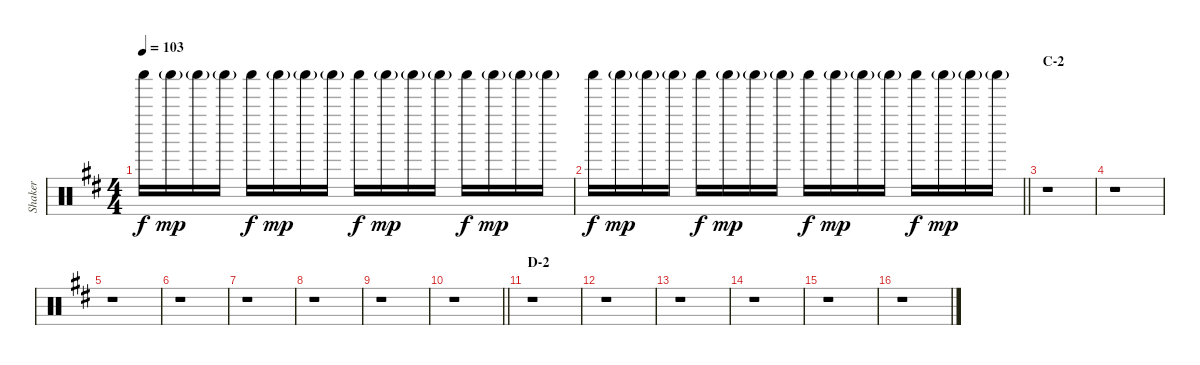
\track ("Shaker" "Shaker") {instrument percussion}
\staff {score}
\articulation defaults
\ts (4 4)
\tempo 103
\clef neutral
\ks d "Shaker (hit)".16{dy f} "Shaker (hit)"{g}.16{dy mp} "Shaker (hit)"{g}.16 "Shaker (hit)"{g}.16 "Shaker (hit)".16{dy f} "Shaker (hit)"{g}.16{dy mp} "Shaker (hit)"{g}.16 "Shaker (hit)"{g}.16 "Shaker (hit)".16{dy f} "Shaker (hit)"{g}.16{dy mp} "Shaker (hit)"{g}.16 "Shaker (hit)"{g}.16 "Shaker (hit)".16{dy f} "Shaker (hit)"{g}.16{dy mp} "Shaker (hit)"{g}.16 "Shaker (hit)"{g}.16
|
\barLineRight lightlight "Shaker (hit)".16{dy f} "Shaker (hit)"{g}.16{dy mp} "Shaker (hit)"{g}.16 "Shaker (hit)"{g}.16 "Shaker (hit)".16{dy f} "Shaker (hit)"{g}.16{dy mp} "Shaker (hit)"{g}.16 "Shaker (hit)"{g}.16 "Shaker (hit)".16{dy f} "Shaker (hit)"{g}.16{dy mp} "Shaker (hit)"{g}.16 "Shaker (hit)"{g}.16 "Shaker (hit)".16{dy f} "Shaker (hit)"{g}.16{dy mp} "Shaker (hit)"{g}.16 "Shaker (hit)"{g}.16
|
\section ("" "C-2")
r.1 |
r.1 |
r.1 |
r.1 |
r.1 |
r.1 |
r.1 |
\barLineRight lightlight
r.1 |
\section ("" "D-2")
r.1 |
r.1 |
r.1 |
r.1 |
r.1 |
r.1
